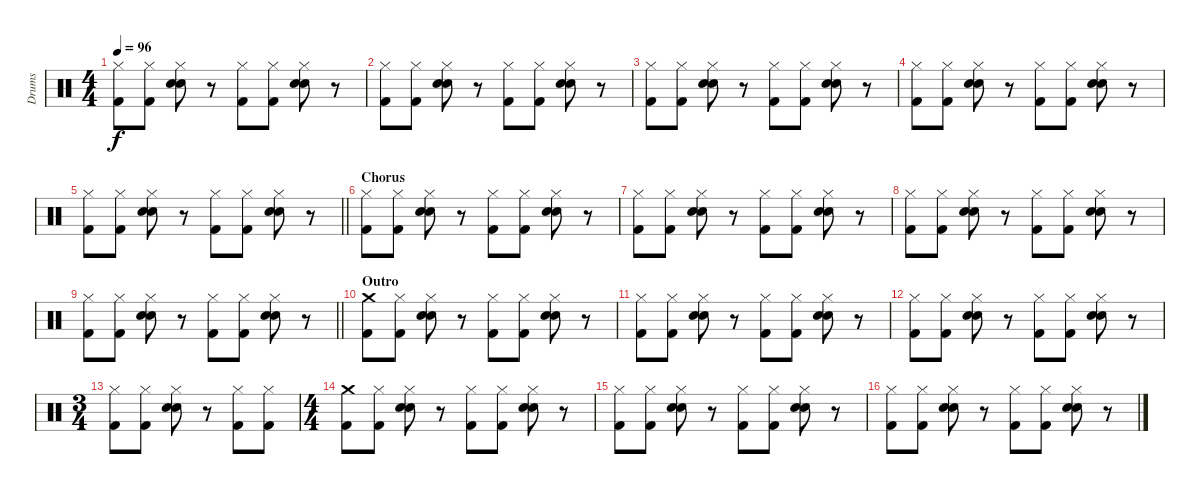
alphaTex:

\track ("Drums" "Drums") {instrument percussion}
\staff {score}
\articulation defaults
\ts (4 4)
\tempo 96
\clef neutral
\ks c
("Hi-Hat (closed)" "Kick (hit) 2").8{dy f} ("Hi-Hat (closed)" "Kick (hit) 2").8 ("Hi-Hat (closed)" "Hand Clap (hit)" "Snare (hit) 2").8 r.8 ("Hi-Hat (closed)" "Kick (hit) 2").8 ("Hi-Hat (closed)" "Kick (hit) 2").8 ("Hi-Hat (closed)" "Hand Clap (hit)" "Snare (hit) 2").8 r.8 |
("Hi-Hat (closed)" "Kick (hit) 2").8 ("Hi-Hat (closed)" "Kick (hit) 2").8 ("Hi-Hat (closed)" "Hand Clap (hit)" "Snare (hit) 2").8 r.8 ("Hi-Hat (closed)" "Kick (hit) 2").8 ("Hi-Hat (closed)" "Kick (hit) 2").8 ("Hi-Hat (closed)" "Hand Clap (hit)" "Snare (hit) 2").8 r.8 |
("Hi-Hat (closed)" "Kick (hit) 2").8 ("Hi-Hat (closed)" "Kick (hit) 2").8 ("Hi-Hat (closed)" "Hand Clap (hit)" "Snare (hit) 2").8 r.8 ("Hi-Hat (closed)" "Kick (hit) 2").8 ("Hi-Hat (closed)" "Kick (hit) 2").8 ("Hi-Hat (closed)" "Hand Clap (hit)" "Snare (hit) 2").8 r.8 |
("Hi-Hat (closed)" "Kick (hit) 2").8 ("Hi-Hat (closed)" "Kick (hit) 2").8 ("Hi-Hat (closed)" "Hand Clap (hit)" "Snare (hit) 2").8 r.8 ("Hi-Hat (closed)" "Kick (hit) 2").8 ("Hi-Hat (closed)" "Kick (hit) 2").8 ("Hi-Hat (closed)" "Hand Clap (hit)" "Snare (hit) 2").8 r.8 |
\barLineRight lightlight
("Hi-Hat (closed)" "Kick (hit) 2").8 ("Hi-Hat (closed)" "Kick (hit) 2").8 ("Hi-Hat (closed)" "Hand Clap (hit)" "Snare (hit) 2").8 r.8 ("Hi-Hat (closed)" "Kick (hit) 2").8 ("Hi-Hat (closed)" "Kick (hit) 2").8 ("Hi-Hat (closed)" "Hand Clap (hit)" "Snare (hit) 2").8 r.8 |
\section ("" "Chorus")
("Hi-Hat (closed)" "Kick (hit) 2").8 ("Hi-Hat (closed)" "Kick (hit) 2").8 ("Hi-Hat (closed)" "Hand Clap (hit)" "Snare (hit) 2").8 r.8 ("Hi-Hat (closed)" "Kick (hit) 2").8 ("Hi-Hat (closed)" "Kick (hit) 2").8 ("Hi-Hat (closed)" "Hand Clap (hit)" "Snare (hit) 2").8 r.8 |
("Hi-Hat (closed)" "Kick (hit) 2").8 ("Hi-Hat (closed)" "Kick (hit) 2").8 ("Hi-Hat (closed)" "Hand Clap (hit)" "Snare (hit) 2").8 r.8 ("Hi-Hat (closed)" "Kick (hit) 2").8 ("Hi-Hat (closed)" "Kick (hit) 2").8 ("Hi-Hat (closed)" "Hand Clap (hit)" "Snare (hit) 2").8 r.8 |
("Hi-Hat (closed)" "Kick (hit) 2").8 ("Hi-Hat (closed)" "Kick (hit) 2").8 ("Hi-Hat (closed)" "Hand Clap (hit)" "Snare (hit) 2").8 r.8 ("Hi-Hat (closed)" "Kick (hit) 2").8 ("Hi-Hat (closed)" "Kick (hit) 2").8 ("Hi-Hat (closed)" "Hand Clap (hit)" "Snare (hit) 2").8 r.8 |
\barLineRight lightlight
("Hi-Hat (closed)" "Kick (hit) 2").8 ("Hi-Hat (closed)" "Kick (hit) 2").8 ("Hi-Hat (closed)" "Hand Clap (hit)" "Snare (hit) 2").8 r.8 ("Hi-Hat (closed)" "Kick (hit) 2").8 ("Hi-Hat (closed)" "Kick (hit) 2").8 ("Hi-Hat (closed)" "Hand Clap (hit)" "Snare (hit) 2").8 r.8 |
\section ("" "Outro")
("Crash medium (hit)" "Kick (hit) 2").8 ("Hi-Hat (closed)" "Kick (hit) 2").8 ("Hi-Hat (closed)" "Hand Clap (hit)" "Snare (hit) 2").8 r.8 ("Hi-Hat (closed)" "Kick (hit) 2").8 ("Hi-Hat (closed)" "Kick (hit) 2").8 ("Hi-Hat (closed)" "Hand Clap (hit)" "Snare (hit) 2").8 r.8 |
("Hi-Hat (closed)" "Kick (hit) 2").8 ("Hi-Hat (closed)" "Kick (hit) 2").8 ("Hi-Hat (closed)" "Hand Clap (hit)" "Snare (hit) 2").8 r.8 ("Hi-Hat (closed)" "Kick (hit) 2").8 ("Hi-Hat (closed)" "Kick (hit) 2").8 ("Hi-Hat (closed)" "Hand Clap (hit)" "Snare (hit) 2").8 r.8 |
("Hi-Hat (closed)" "Kick (hit) 2").8 ("Hi-Hat (closed)" "Kick (hit) 2").8 ("Hi-Hat (closed)" "Hand Clap (hit)" "Snare (hit) 2").8 r.8 ("Hi-Hat (closed)" "Kick (hit) 2").8 ("Hi-Hat (closed)" "Kick (hit) 2").8 ("Hi-Hat (closed)" "Hand Clap (hit)" "Snare (hit) 2").8 r.8 |
\ts (3 4)
("Hi-Hat (closed)" "Kick (hit) 2").8 ("Hi-Hat (closed)" "Kick (hit) 2").8 ("Hi-Hat (closed)" "Hand Clap (hit)" "Snare (hit) 2").8 r.8 ("Hi-Hat (closed)" "Kick (hit) 2").8 ("Hi-Hat (closed)" "Kick (hit) 2").8 |
\ts (4 4)
("Crash medium (hit)" "Kick (hit) 2").8 ("Hi-Hat (closed)" "Kick (hit) 2").8 ("Hi-Hat (closed)" "Hand Clap (hit)" "Snare (hit) 2").8 r.8 ("Hi-Hat (closed)" "Kick (hit) 2").8 ("Hi-Hat (closed)" "Kick (hit) 2").8 ("Hi-Hat (closed)" "Hand Clap (hit)" "Snare (hit) 2").8 r.8 |
("Hi-Hat (closed)" "Kick (hit) 2").8 ("Hi-Hat (closed)" "Kick (hit) 2").8 ("Hi-Hat (closed)" "Hand Clap (hit)" "Snare (hit) 2").8 r.8 ("Hi-Hat (closed)" "Kick (hit) 2").8 ("Hi-Hat (closed)" "Kick (hit) 2").8 ("Hi-Hat (closed)" "Hand Clap (hit)" "Snare (hit) 2").8 r.8 |
("Hi-Hat (closed)" "Kick (hit) 2").8 ("Hi-Hat (closed)" "Kick (hit) 2").8 ("Hi-Hat (closed)" "Hand Clap (hit)" "Snare (hit) 2").8 r.8 ("Hi-Hat (closed)" "Kick (hit) 2").8 ("Hi-Hat (closed)" "Kick (hit) 2").8 ("Hi-Hat (closed)" "Hand Clap (hit)" "Snare (hit) 2").8 r.8
